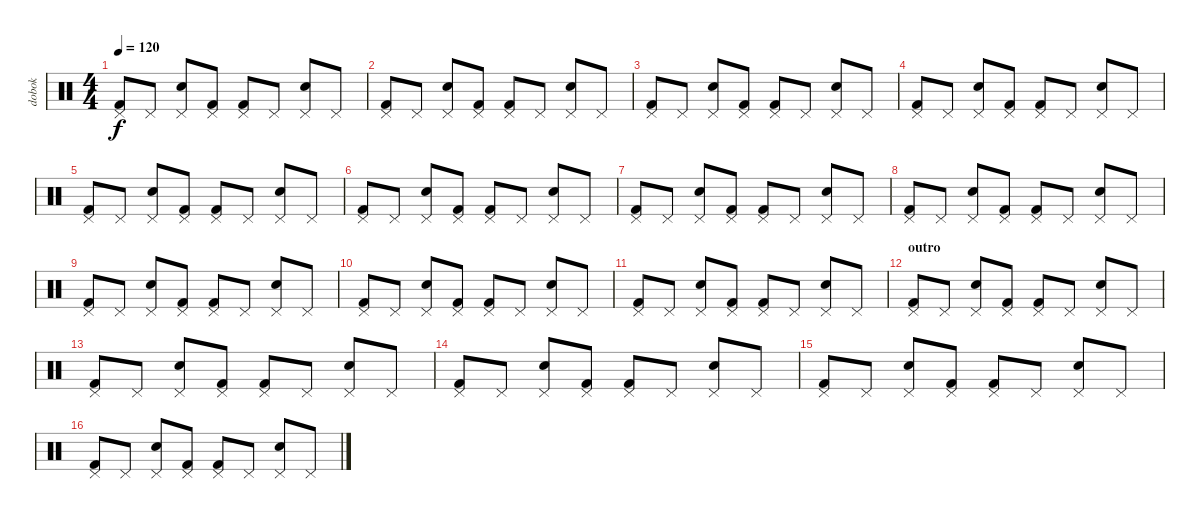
\track ("dobok" "dobok") {instrument percussion}
\staff {score}
\articulation defaults
\ts (4 4)
\tempo 120
\clef neutral
\ks c
("Pedal Hi-Hat (hit)" "Kick (hit) 2").8{dy f} "Pedal Hi-Hat (hit)".8 ("Pedal Hi-Hat (hit)" "Snare (hit) 2").8 ("Pedal Hi-Hat (hit)" "Kick (hit) 2").8 ("Pedal Hi-Hat (hit)" "Kick (hit) 2").8 "Pedal Hi-Hat (hit)".8 ("Pedal Hi-Hat (hit)" "Snare (hit) 2").8 "Pedal Hi-Hat (hit)".8 |
("Pedal Hi-Hat (hit)" "Kick (hit) 2").8 "Pedal Hi-Hat (hit)".8 ("Pedal Hi-Hat (hit)" "Snare (hit) 2").8 ("Pedal Hi-Hat (hit)" "Kick (hit) 2").8 ("Pedal Hi-Hat (hit)" "Kick (hit) 2").8 "Pedal Hi-Hat (hit)".8 ("Pedal Hi-Hat (hit)" "Snare (hit) 2").8 "Pedal Hi-Hat (hit)".8 |
("Pedal Hi-Hat (hit)" "Kick (hit) 2").8 "Pedal Hi-Hat (hit)".8 ("Pedal Hi-Hat (hit)" "Snare (hit) 2").8 ("Pedal Hi-Hat (hit)" "Kick (hit) 2").8 ("Pedal Hi-Hat (hit)" "Kick (hit) 2").8 "Pedal Hi-Hat (hit)".8 ("Pedal Hi-Hat (hit)" "Snare (hit) 2").8 "Pedal Hi-Hat (hit)".8 |
("Pedal Hi-Hat (hit)" "Kick (hit) 2").8 "Pedal Hi-Hat (hit)".8 ("Pedal Hi-Hat (hit)" "Snare (hit) 2").8 ("Pedal Hi-Hat (hit)" "Kick (hit) 2").8 ("Pedal Hi-Hat (hit)" "Kick (hit) 2").8 "Pedal Hi-Hat (hit)".8 ("Pedal Hi-Hat (hit)" "Snare (hit) 2").8 "Pedal Hi-Hat (hit)".8 |
("Pedal Hi-Hat (hit)" "Kick (hit) 2").8 "Pedal Hi-Hat (hit)".8 ("Pedal Hi-Hat (hit)" "Snare (hit) 2").8 ("Pedal Hi-Hat (hit)" "Kick (hit) 2").8 ("Pedal Hi-Hat (hit)" "Kick (hit) 2").8 "Pedal Hi-Hat (hit)".8 ("Pedal Hi-Hat (hit)" "Snare (hit) 2").8 "Pedal Hi-Hat (hit)".8 |
("Pedal Hi-Hat (hit)" "Kick (hit) 2").8 "Pedal Hi-Hat (hit)".8 ("Pedal Hi-Hat (hit)" "Snare (hit) 2").8 ("Pedal Hi-Hat (hit)" "Kick (hit) 2").8 ("Pedal Hi-Hat (hit)" "Kick (hit) 2").8 "Pedal Hi-Hat (hit)".8 ("Pedal Hi-Hat (hit)" "Snare (hit) 2").8 "Pedal Hi-Hat (hit)".8 |
("Pedal Hi-Hat (hit)" "Kick (hit) 2").8 "Pedal Hi-Hat (hit)".8 ("Pedal Hi-Hat (hit)" "Snare (hit) 2").8 ("Pedal Hi-Hat (hit)" "Kick (hit) 2").8 ("Pedal Hi-Hat (hit)" "Kick (hit) 2").8 "Pedal Hi-Hat (hit)".8 ("Pedal Hi-Hat (hit)" "Snare (hit) 2").8 "Pedal Hi-Hat (hit)".8 |
("Pedal Hi-Hat (hit)" "Kick (hit) 2").8 "Pedal Hi-Hat (hit)".8 ("Pedal Hi-Hat (hit)" "Snare (hit) 2").8 ("Pedal Hi-Hat (hit)" "Kick (hit) 2").8 ("Pedal Hi-Hat (hit)" "Kick (hit) 2").8 "Pedal Hi-Hat (hit)".8 ("Pedal Hi-Hat (hit)" "Snare (hit) 2").8 "Pedal Hi-Hat (hit)".8 |
("Pedal Hi-Hat (hit)" "Kick (hit) 2").8 "Pedal Hi-Hat (hit)".8 ("Pedal Hi-Hat (hit)" "Snare (hit) 2").8 ("Pedal Hi-Hat (hit)" "Kick (hit) 2").8 ("Pedal Hi-Hat (hit)" "Kick (hit) 2").8 "Pedal Hi-Hat (hit)".8 ("Pedal Hi-Hat (hit)" "Snare (hit) 2").8 "Pedal Hi-Hat (hit)".8 |
("Pedal Hi-Hat (hit)" "Kick (hit) 2").8 "Pedal Hi-Hat (hit)".8 ("Pedal Hi-Hat (hit)" "Snare (hit) 2").8 ("Pedal Hi-Hat (hit)" "Kick (hit) 2").8 ("Pedal Hi-Hat (hit)" "Kick (hit) 2").8 "Pedal Hi-Hat (hit)".8 ("Pedal Hi-Hat (hit)" "Snare (hit) 2").8 "Pedal Hi-Hat (hit)".8 |
("Pedal Hi-Hat (hit)" "Kick (hit) 2").8 "Pedal Hi-Hat (hit)".8 ("Pedal Hi-Hat (hit)" "Snare (hit) 2").8 ("Pedal Hi-Hat (hit)" "Kick (hit) 2").8 ("Pedal Hi-Hat (hit)" "Kick (hit) 2").8 "Pedal Hi-Hat (hit)".8 ("Pedal Hi-Hat (hit)" "Snare (hit) 2").8 "Pedal Hi-Hat (hit)".8 |
\section ("" "outro")
("Pedal Hi-Hat (hit)" "Kick (hit) 2").8 "Pedal Hi-Hat (hit)".8 ("Pedal Hi-Hat (hit)" "Snare (hit) 2").8 ("Pedal Hi-Hat (hit)" "Kick (hit) 2").8 ("Pedal Hi-Hat (hit)" "Kick (hit) 2").8 "Pedal Hi-Hat (hit)".8 ("Pedal Hi-Hat (hit)" "Snare (hit) 2").8 "Pedal Hi-Hat (hit)".8 |
("Pedal Hi-Hat (hit)" "Kick (hit) 2").8 "Pedal Hi-Hat (hit)".8 ("Pedal Hi-Hat (hit)" "Snare (hit) 2").8 ("Pedal Hi-Hat (hit)" "Kick (hit) 2").8 ("Pedal Hi-Hat (hit)" "Kick (hit) 2").8 "Pedal Hi-Hat (hit)".8 ("Pedal Hi-Hat (hit)" "Snare (hit) 2").8 "Pedal Hi-Hat (hit)".8 |
("Pedal Hi-Hat (hit)" "Kick (hit) 2").8 "Pedal Hi-Hat (hit)".8 ("Pedal Hi-Hat (hit)" "Snare (hit) 2").8 ("Pedal Hi-Hat (hit)" "Kick (hit) 2").8 ("Pedal Hi-Hat (hit)" "Kick (hit) 2").8 "Pedal Hi-Hat (hit)".8 ("Pedal Hi-Hat (hit)" "Snare (hit) 2").8 "Pedal Hi-Hat (hit)".8 |
("Pedal Hi-Hat (hit)" "Kick (hit) 2").8 "Pedal Hi-Hat (hit)".8 ("Pedal Hi-Hat (hit)" "Snare (hit) 2").8 ("Pedal Hi-Hat (hit)" "Kick (hit) 2").8 ("Pedal Hi-Hat (hit)" "Kick (hit) 2").8 "Pedal Hi-Hat (hit)".8 ("Pedal Hi-Hat (hit)" "Snare (hit) 2").8 "Pedal Hi-Hat (hit)".8 |
("Pedal Hi-Hat (hit)" "Kick (hit) 2").8 "Pedal Hi-Hat (hit)".8 ("Pedal Hi-Hat (hit)" "Snare (hit) 2").8 ("Pedal Hi-Hat (hit)" "Kick (hit) 2").8 ("Pedal Hi-Hat (hit)" "Kick (hit) 2").8 "Pedal Hi-Hat (hit)".8 ("Pedal Hi-Hat (hit)" "Snare (hit) 2").8 "Pedal Hi-Hat (hit)".8
